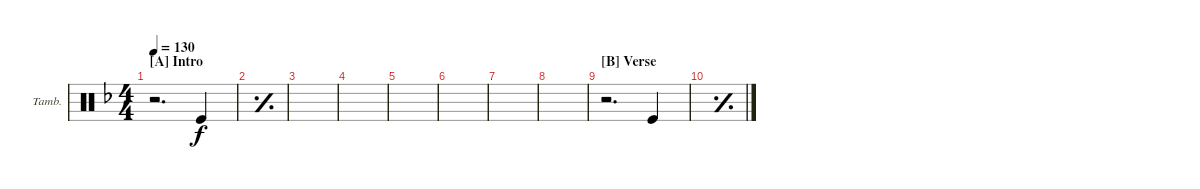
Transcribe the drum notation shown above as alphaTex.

\defaultSystemsLayout 4
\bracketExtendMode groupsimilarinstruments
\firstSystemTrackNameOrientation horizontal
\otherSystemsTrackNameOrientation horizontal
\track ("Tambourine" "Tamb.") {instrument percussion}
\staff {score}
\articulation defaults
\ts (4 4)
\section ("A" "Intro")
\tempo 130
\clef neutral
\ks f
r.2{d dy f} "Kick (hit)".4 |
\simile simple
|
|
|
|
|
|
|
\section ("B" "Verse")
\simile none
r.2{d} "Kick (hit)".4 |
\simile simple
